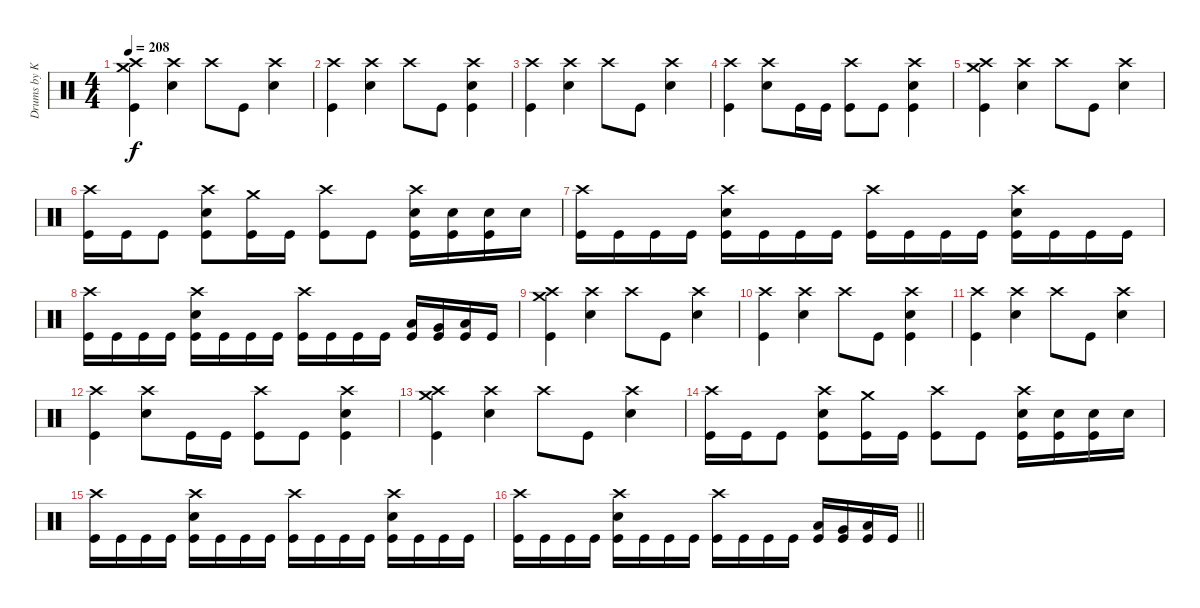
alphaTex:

\track ("Drums by Kwonnie" "Drums by K") {instrument percussion}
\staff {score}
\articulation defaults
\ts (4 4)
\tempo 208
\clef neutral
\ks c
("Crash high (hit)" "Crash medium (hit)" "Kick (hit)").4{dy f} ("Crash high (hit)" "Electric Snare (hit)").4 "Crash high (hit)".8 "Kick (hit)".8 ("Crash high (hit)" "Electric Snare (hit)").4 |
("Crash high (hit)" "Kick (hit)").4 ("Crash high (hit)" "Electric Snare (hit)").4 "Crash high (hit)".8 "Kick (hit)".8 ("Crash high (hit)" "Electric Snare (hit)" "Kick (hit)").4 |
("Crash high (hit)" "Kick (hit)").4 ("Crash high (hit)" "Electric Snare (hit)").4 "Crash high (hit)".8 "Kick (hit)".8 ("Crash high (hit)" "Electric Snare (hit)").4 |
("Crash high (hit)" "Kick (hit)").4 ("Crash high (hit)" "Electric Snare (hit)").8 "Kick (hit)".16 "Kick (hit)".16 ("Crash high (hit)" "Kick (hit)").8 "Kick (hit)".8 ("Crash high (hit)" "Electric Snare (hit)" "Kick (hit)").4 |
("Crash high (hit)" "Crash medium (hit)" "Kick (hit)").4 ("Crash high (hit)" "Electric Snare (hit)").4 "Crash high (hit)".8 "Kick (hit)".8 ("Crash high (hit)" "Electric Snare (hit)").4 |
("Crash high (hit)" "Kick (hit)").16 "Kick (hit)".16 "Kick (hit)".8 ("Crash high (hit)" "Electric Snare (hit)" "Kick (hit)").8 ("Crash medium (hit)" "Kick (hit)").16 "Kick (hit)".16 ("Crash high (hit)" "Kick (hit)").8 "Kick (hit)".8 ("Crash high (hit)" "Electric Snare (hit)" "Kick (hit)").16 ("Electric Snare (hit)" "Kick (hit)").16 ("Electric Snare (hit)" "Kick (hit)").16 "Electric Snare (hit)".16 |
("Crash high (hit)" "Kick (hit)").16 "Kick (hit)".16 "Kick (hit)".16 "Kick (hit)".16 ("Crash high (hit)" "Electric Snare (hit)" "Kick (hit)").16 "Kick (hit)".16 "Kick (hit)".16 "Kick (hit)".16 ("Crash high (hit)" "Kick (hit)").16 "Kick (hit)".16 "Kick (hit)".16 "Kick (hit)".16 ("Crash high (hit)" "Electric Snare (hit)" "Kick (hit)").16 "Kick (hit)".16 "Kick (hit)".16 "Kick (hit)".16 |
("Crash high (hit)" "Kick (hit)").16 "Kick (hit)".16 "Kick (hit)".16 "Kick (hit)".16 ("Crash high (hit)" "Electric Snare (hit)" "Kick (hit)").16 "Kick (hit)".16 "Kick (hit)".16 "Kick (hit)".16 ("Crash high (hit)" "Kick (hit)").16 "Kick (hit)".16 "Kick (hit)".16 "Kick (hit)".16 ("Low Tom (hit)" "Kick (hit)").16 ("Very Low Tom (hit)" "Kick (hit)").16 ("Low Floor Tom (hit)" "Kick (hit)").16 "Kick (hit)".16 |
("Crash high (hit)" "Crash medium (hit)" "Kick (hit)").4 ("Crash high (hit)" "Electric Snare (hit)").4 "Crash high (hit)".8 "Kick (hit)".8 ("Crash high (hit)" "Electric Snare (hit)").4 |
("Crash high (hit)" "Kick (hit)").4 ("Crash high (hit)" "Electric Snare (hit)").4 "Crash high (hit)".8 "Kick (hit)".8 ("Crash high (hit)" "Electric Snare (hit)" "Kick (hit)").4 |
("Crash high (hit)" "Kick (hit)").4 ("Crash high (hit)" "Electric Snare (hit)").4 "Crash high (hit)".8 "Kick (hit)".8 ("Crash high (hit)" "Electric Snare (hit)").4 |
("Crash high (hit)" "Kick (hit)").4 ("Crash high (hit)" "Electric Snare (hit)").8 "Kick (hit)".16 "Kick (hit)".16 ("Crash high (hit)" "Kick (hit)").8 "Kick (hit)".8 ("Crash high (hit)" "Electric Snare (hit)" "Kick (hit)").4 |
("Crash high (hit)" "Crash medium (hit)" "Kick (hit)").4 ("Crash high (hit)" "Electric Snare (hit)").4 "Crash high (hit)".8 "Kick (hit)".8 ("Crash high (hit)" "Electric Snare (hit)").4 |
("Crash high (hit)" "Kick (hit)").16 "Kick (hit)".16 "Kick (hit)".8 ("Crash high (hit)" "Electric Snare (hit)" "Kick (hit)").8 ("Crash medium (hit)" "Kick (hit)").16 "Kick (hit)".16 ("Crash high (hit)" "Kick (hit)").8 "Kick (hit)".8 ("Crash high (hit)" "Electric Snare (hit)" "Kick (hit)").16 ("Electric Snare (hit)" "Kick (hit)").16 ("Electric Snare (hit)" "Kick (hit)").16 "Electric Snare (hit)".16 |
("Crash high (hit)" "Kick (hit)").16 "Kick (hit)".16 "Kick (hit)".16 "Kick (hit)".16 ("Crash high (hit)" "Electric Snare (hit)" "Kick (hit)").16 "Kick (hit)".16 "Kick (hit)".16 "Kick (hit)".16 ("Crash high (hit)" "Kick (hit)").16 "Kick (hit)".16 "Kick (hit)".16 "Kick (hit)".16 ("Crash high (hit)" "Electric Snare (hit)" "Kick (hit)").16 "Kick (hit)".16 "Kick (hit)".16 "Kick (hit)".16 |
\barLineRight lightlight
("Crash high (hit)" "Kick (hit)").16 "Kick (hit)".16 "Kick (hit)".16 "Kick (hit)".16 ("Crash high (hit)" "Electric Snare (hit)" "Kick (hit)").16 "Kick (hit)".16 "Kick (hit)".16 "Kick (hit)".16 ("Crash high (hit)" "Kick (hit)").16 "Kick (hit)".16 "Kick (hit)".16 "Kick (hit)".16 ("Low Tom (hit)" "Kick (hit)").16 ("Very Low Tom (hit)" "Kick (hit)").16 ("Low Floor Tom (hit)" "Kick (hit)").16 "Kick (hit)".16
